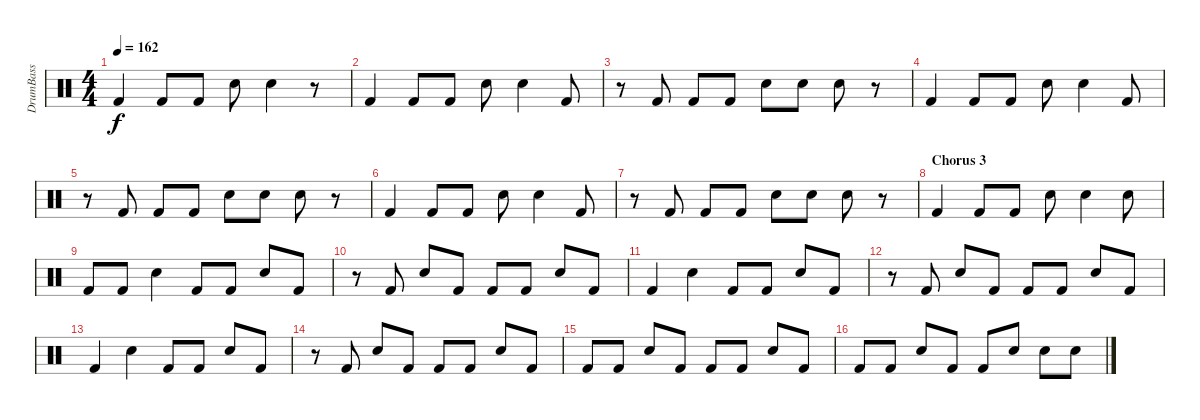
\track ("DrumBass" "DrumBass") {instrument percussion}
\staff {score}
\articulation defaults
\ts (4 4)
\tempo 162
\clef neutral
\ks c "Kick (hit) 2".4{dy f} "Kick (hit) 2".8 "Kick (hit) 2".8 "Snare (hit) 2".8 "Snare (hit) 2".4
r.8 |
"Kick (hit) 2".4 "Kick (hit) 2".8 "Kick (hit) 2".8 "Snare (hit) 2".8 "Snare (hit) 2".4 "Kick (hit) 2".8 |
r.8 "Kick (hit) 2".8 "Kick (hit) 2".8 "Kick (hit) 2".8 "Snare (hit) 2".8 "Snare (hit) 2".8 "Snare (hit) 2".8 r.8 |
"Kick (hit) 2".4 "Kick (hit) 2".8 "Kick (hit) 2".8 "Snare (hit) 2".8 "Snare (hit) 2".4 "Kick (hit) 2".8 |
r.8 "Kick (hit) 2".8 "Kick (hit) 2".8 "Kick (hit) 2".8 "Snare (hit) 2".8 "Snare (hit) 2".8 "Snare (hit) 2".8 r.8 |
"Kick (hit) 2".4 "Kick (hit) 2".8 "Kick (hit) 2".8 "Snare (hit) 2".8 "Snare (hit) 2".4 "Kick (hit) 2".8 |
r.8 "Kick (hit) 2".8 "Kick (hit) 2".8 "Kick (hit) 2".8 "Snare (hit) 2".8 "Snare (hit) 2".8 "Snare (hit) 2".8 r.8 |
\section ("" "Chorus 3")
"Kick (hit) 2".4 "Kick (hit) 2".8 "Kick (hit) 2".8 "Snare (hit) 2"{tr (38 16)}.8 "Snare (hit) 2"{tr (38 16)}.4 "Snare (hit) 2"{tr (38 16)}.8 |
"Kick (hit) 2".8 "Kick (hit) 2".8 "Snare (hit) 2".4 "Kick (hit) 2".8 "Kick (hit) 2".8 "Snare (hit) 2".8 "Kick (hit) 2".8 |
r.8 "Kick (hit) 2".8 "Snare (hit) 2".8 "Kick (hit) 2".8 "Kick (hit) 2".8 "Kick (hit) 2".8 "Snare (hit) 2".8 "Kick (hit) 2".8 |
"Kick (hit) 2".4 "Snare (hit) 2".4 "Kick (hit) 2".8 "Kick (hit) 2".8 "Snare (hit) 2".8 "Kick (hit) 2".8 |
r.8 "Kick (hit) 2".8 "Snare (hit) 2".8 "Kick (hit) 2".8 "Kick (hit) 2".8 "Kick (hit) 2".8 "Snare (hit) 2".8 "Kick (hit) 2".8 |
"Kick (hit) 2".4 "Snare (hit) 2".4 "Kick (hit) 2".8 "Kick (hit) 2".8 "Snare (hit) 2".8 "Kick (hit) 2".8 |
r.8 "Kick (hit) 2".8 "Snare (hit) 2".8 "Kick (hit) 2".8 "Kick (hit) 2".8 "Kick (hit) 2".8 "Snare (hit) 2".8 "Kick (hit) 2".8 |
"Kick (hit) 2".8 "Kick (hit) 2".8 "Snare (hit) 2".8 "Kick (hit) 2".8 "Kick (hit) 2".8 "Kick (hit) 2".8 "Snare (hit) 2".8 "Kick (hit) 2".8 |
"Kick (hit) 2".8 "Kick (hit) 2".8 "Snare (hit) 2".8 "Kick (hit) 2".8 "Kick (hit) 2".8 "Snare (hit) 2"{tr (38 16)}.8 "Snare (hit) 2"{tr (38 16)}.8 "Snare (hit) 2"{tr (38 16)}.8
